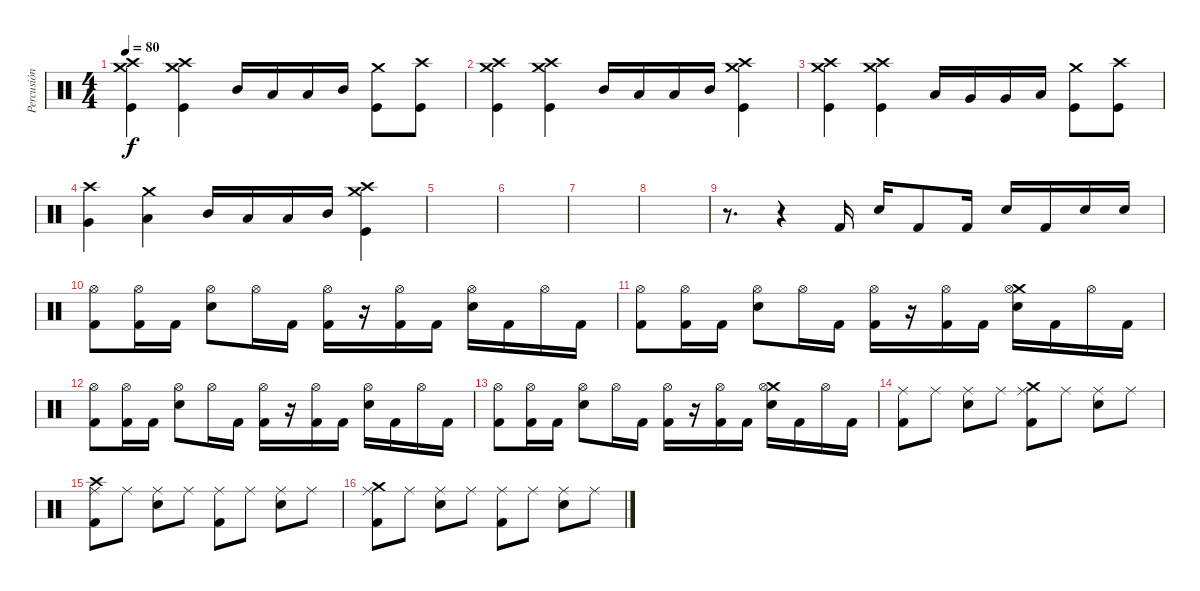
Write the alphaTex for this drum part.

\track ("Percusión" "Percusión") {instrument percussion}
\staff {score}
\articulation defaults
\ts (4 4)
\tempo 80
\clef neutral
\ks c
("Kick (hit)" "Crash medium (hit)" "Crash high (hit)").4{dy f} ("Kick (hit)" "Crash medium (hit)" "Crash high (hit)").4 "Mid Tom (hit)".16 "Low Tom (hit)".16 "Low Tom (hit)".16 "Mid Tom (hit)".16 ("Kick (hit)" "Crash medium (hit)").8 ("Kick (hit)" "Crash high (hit)").8 |
("Kick (hit)" "Crash medium (hit)" "Crash high (hit)").4 ("Kick (hit)" "Crash medium (hit)" "Crash high (hit)").4 "Mid Tom (hit)".16 "Low Tom (hit)".16 "Low Tom (hit)".16 "Mid Tom (hit)".16 ("Kick (hit)" "Crash medium (hit)" "Crash high (hit)").4 |
("Kick (hit)" "Crash medium (hit)" "Crash high (hit)").4 ("Kick (hit)" "Crash medium (hit)" "Crash high (hit)").4 "Low Tom (hit)".16 "Very Low Tom (hit)".16 "Very Low Tom (hit)".16 "Low Tom (hit)".16 ("Kick (hit)" "Crash medium (hit)").8 ("Kick (hit)" "Crash high (hit)").8 |
("Very Low Tom (hit)" "Crash high (hit)").4 ("Low Tom (hit)" "Crash medium (hit)").4 "Mid Tom (hit)".16 "Low Tom (hit)".16 "Low Tom (hit)".16 "Mid Tom (hit)".16 ("Kick (hit)" "Crash high (hit)" "Crash medium (hit)").4 |
|
|
|
|
r.8{d} r.4 "Kick (hit) 2".16 "Electric Snare (hit)".16 "Kick (hit) 2".8 "Kick (hit) 2".16 "Electric Snare (hit)".16 "Kick (hit) 2".16 "Electric Snare (hit)".16 "Electric Snare (hit)".16 |
("Kick (hit) 2" "Hi-Hat (open)").8 ("Kick (hit) 2" "Hi-Hat (open)").16 "Kick (hit) 2".16 ("Electric Snare (hit)" "Hi-Hat (open)").8 "Hi-Hat (open)".16 "Kick (hit) 2".16 ("Kick (hit) 2" "Hi-Hat (open)").16 r.16 ("Kick (hit) 2" "Hi-Hat (open)").16 "Kick (hit) 2".16 ("Electric Snare (hit)" "Hi-Hat (open)").16 "Kick (hit) 2".16 "Hi-Hat (open)".16 "Kick (hit) 2".16 |
("Kick (hit) 2" "Hi-Hat (open)").8 ("Kick (hit) 2" "Hi-Hat (open)").16 "Kick (hit) 2".16 ("Electric Snare (hit)" "Hi-Hat (open)").8 "Hi-Hat (open)".16 "Kick (hit) 2".16 ("Kick (hit) 2" "Hi-Hat (open)").16 r.16 ("Kick (hit) 2" "Hi-Hat (open)").16 "Kick (hit) 2".16 ("Electric Snare (hit)" "Crash medium (hit)" "Hi-Hat (open)").16 "Kick (hit) 2".16 "Hi-Hat (open)".16 "Kick (hit) 2".16 |
("Kick (hit) 2" "Hi-Hat (open)").8 ("Kick (hit) 2" "Hi-Hat (open)").16 "Kick (hit) 2".16 ("Electric Snare (hit)" "Hi-Hat (open)").8 "Hi-Hat (open)".16 "Kick (hit) 2".16 ("Kick (hit) 2" "Hi-Hat (open)").16 r.16 ("Kick (hit) 2" "Hi-Hat (open)").16 "Kick (hit) 2".16 ("Electric Snare (hit)" "Hi-Hat (open)").16 "Kick (hit) 2".16 "Hi-Hat (open)".16 "Kick (hit) 2".16 |
("Kick (hit) 2" "Hi-Hat (open)").8 ("Kick (hit) 2" "Hi-Hat (open)").16 "Kick (hit) 2".16 ("Electric Snare (hit)" "Hi-Hat (open)").8 "Hi-Hat (open)".16 "Kick (hit) 2".16 ("Kick (hit) 2" "Hi-Hat (open)").16 r.16 ("Kick (hit) 2" "Hi-Hat (open)").16 "Kick (hit) 2".16 ("Electric Snare (hit)" "Crash medium (hit)" "Hi-Hat (open)").16 "Kick (hit) 2".16 "Hi-Hat (open)".16 "Kick (hit) 2".16 |
("Kick (hit) 2" "Ride (middle)").8 "Ride (middle)".8 ("Electric Snare (hit)" "Ride (middle)").8 "Ride (middle)".8 ("Kick (hit) 2" "Crash medium (hit)" "Ride (middle)").8 "Ride (middle)".8 ("Electric Snare (hit)" "Ride (middle)").8 "Ride (middle)".8 |
("Kick (hit) 2" "Crash high (hit)" "Ride (middle)").8 "Ride (middle)".8 ("Electric Snare (hit)" "Ride (middle)").8 "Ride (middle)".8 ("Kick (hit) 2" "Ride (middle)").8 "Ride (middle)".8 ("Electric Snare (hit)" "Ride (middle)").8 "Ride (middle)".8 |
("Kick (hit) 2" "Crash medium (hit)" "Ride (middle)").8 "Ride (middle)".8 ("Electric Snare (hit)" "Ride (middle)").8 "Ride (middle)".8 ("Kick (hit) 2" "Ride (middle)").8 "Ride (middle)".8 ("Electric Snare (hit)" "Ride (middle)").8 "Ride (middle)".8
